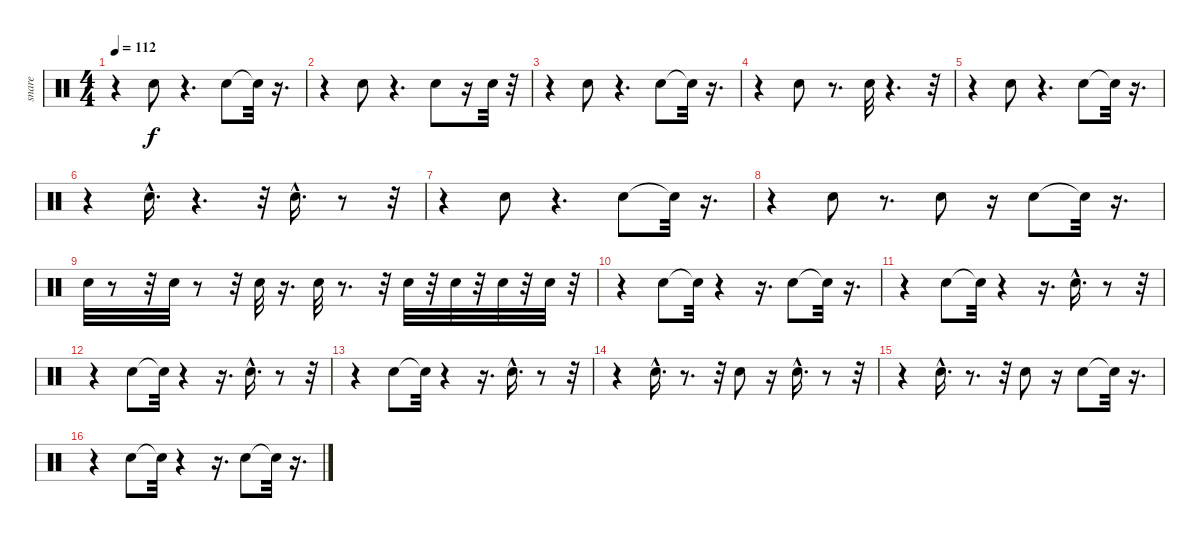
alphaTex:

\track ("snare" "snare") {instrument percussion}
\staff {score}
\articulation defaults
\ts (4 4)
\tempo 112
\clef neutral
\ks c
r.4{dy f} "Snare (hit) 2".8 r.4{d} "Snare (hit) 2".8 "Snare (hit)"{t}.32 r.16{d} |
r.4 "Snare (hit) 2".8 r.4{d} "Snare (hit) 2".8 r.16 "Snare (hit) 2".32 r.32 |
r.4 "Snare (hit) 2".8 r.4{d} "Snare (hit) 2".8 "Snare (hit)"{t}.32 r.16{d} |
r.4 "Snare (hit) 2".8 r.8{d} "Snare (hit) 2".32 r.4{d} r.32 |
r.4 "Snare (hit) 2".8 r.4{d} "Snare (hit) 2".8 "Snare (hit)"{t}.32 r.16{d} |
r.4 "Snare (hit) 2"{hac}.16{d} r.4{d} r.32 "Snare (hit) 2"{hac}.16{d} r.8 r.32 |
r.4 "Snare (hit) 2".8 r.4{d} "Snare (hit) 2".8 "Snare (hit)"{t}.32 r.16{d} |
r.4 "Snare (hit) 2".8 r.8{d} "Snare (hit) 2".8 r.16 "Snare (hit) 2".8 "Snare (hit)"{t}.32 r.16{d} |
"Snare (hit) 2".32 r.8 r.32 "Snare (hit) 2".32 r.8 r.32 "Snare (hit) 2".32 r.16{d} "Snare (hit) 2".32 r.8{d} r.32 "Snare (hit) 2".32 r.32 "Snare (hit) 2".32 r.32 "Snare (hit) 2".32 r.32 "Snare (hit) 2".32 r.32 |
r.4 "Snare (hit) 2".8 "Snare (hit)"{t}.32 r.4 r.16{d} "Snare (hit) 2".8 "Snare (hit)"{t}.32 r.16{d} |
r.4 "Snare (hit) 2".8 "Snare (hit)"{t}.32 r.4 r.16{d} "Snare (hit) 2"{hac}.16{d} r.8 r.32 |
r.4 "Snare (hit) 2".8 "Snare (hit)"{t}.32 r.4 r.16{d} "Snare (hit) 2"{hac}.16{d} r.8 r.32 |
r.4 "Snare (hit) 2".8 "Snare (hit)"{t}.32 r.4 r.16{d} "Snare (hit) 2"{hac}.16{d} r.8 r.32 |
r.4 "Snare (hit) 2"{hac}.16{d} r.8{d} r.32 "Snare (hit) 2".8 r.16 "Snare (hit) 2"{hac}.16{d} r.8 r.32 |
r.4 "Snare (hit) 2"{hac}.16{d} r.8{d} r.32 "Snare (hit) 2".8 r.16 "Snare (hit) 2".8 "Snare (hit)"{t}.32 r.16{d} |
r.4 "Snare (hit) 2".8 "Snare (hit)"{t}.32 r.4 r.16{d} "Snare (hit) 2".8 "Snare (hit)"{t}.32 r.16{d}
